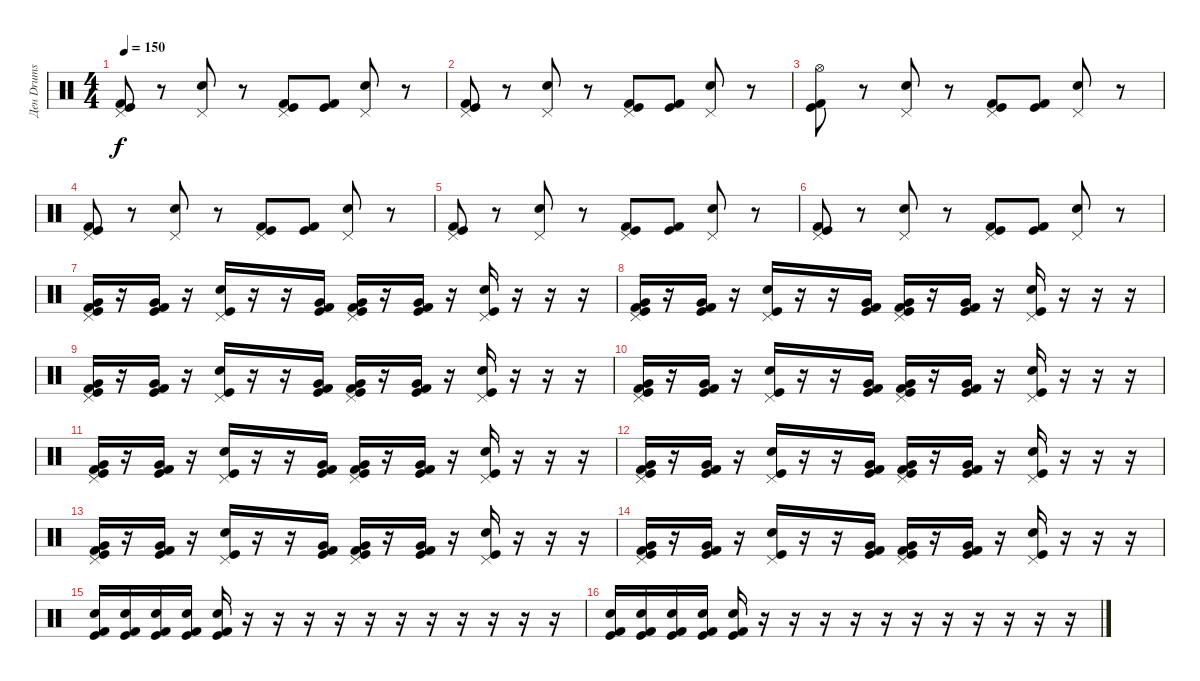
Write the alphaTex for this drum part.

\track ("Ден Drums" "Ден Drums") {instrument percussion}
\staff {score}
\articulation defaults
\ts (4 4)
\tempo 150
\clef neutral
\ks c
("Pedal Hi-Hat (hit)" "Kick (hit)" "Kick (hit) 2").8{dy f} r.8 ("Pedal Hi-Hat (hit)" "Electric Snare (hit)").8 r.8 ("Pedal Hi-Hat (hit)" "Kick (hit)" "Kick (hit) 2").8 ("Kick (hit)" "Kick (hit) 2").8 ("Pedal Hi-Hat (hit)" "Electric Snare (hit)").8 r.8 |
("Pedal Hi-Hat (hit)" "Kick (hit)" "Kick (hit) 2").8 r.8 ("Pedal Hi-Hat (hit)" "Electric Snare (hit)").8 r.8 ("Pedal Hi-Hat (hit)" "Kick (hit)" "Kick (hit) 2").8 ("Kick (hit)" "Kick (hit) 2").8 ("Pedal Hi-Hat (hit)" "Electric Snare (hit)").8 r.8 |
("Hi-Hat (open)" "Kick (hit)" "Kick (hit) 2").8 r.8 ("Pedal Hi-Hat (hit)" "Electric Snare (hit)").8 r.8 ("Pedal Hi-Hat (hit)" "Kick (hit)" "Kick (hit) 2").8 ("Kick (hit)" "Kick (hit) 2").8 ("Pedal Hi-Hat (hit)" "Electric Snare (hit)").8 r.8 |
("Pedal Hi-Hat (hit)" "Kick (hit)" "Kick (hit) 2").8 r.8 ("Pedal Hi-Hat (hit)" "Electric Snare (hit)").8 r.8 ("Pedal Hi-Hat (hit)" "Kick (hit)" "Kick (hit) 2").8 ("Kick (hit)" "Kick (hit) 2").8 ("Pedal Hi-Hat (hit)" "Electric Snare (hit)").8 r.8 |
("Pedal Hi-Hat (hit)" "Kick (hit)" "Kick (hit) 2").8 r.8 ("Pedal Hi-Hat (hit)" "Electric Snare (hit)").8 r.8 ("Pedal Hi-Hat (hit)" "Kick (hit)" "Kick (hit) 2").8 ("Kick (hit)" "Kick (hit) 2").8 ("Pedal Hi-Hat (hit)" "Electric Snare (hit)").8 r.8 |
("Pedal Hi-Hat (hit)" "Kick (hit)" "Kick (hit) 2").8 r.8 ("Pedal Hi-Hat (hit)" "Electric Snare (hit)").8 r.8 ("Pedal Hi-Hat (hit)" "Kick (hit)" "Kick (hit) 2").8 ("Kick (hit)" "Kick (hit) 2").8 ("Pedal Hi-Hat (hit)" "Electric Snare (hit)").8 r.8 |
("Pedal Hi-Hat (hit)" "Very Low Tom (hit)" "Kick (hit) 2" "Kick (hit)").16 r.16 ("Very Low Tom (hit)" "Kick (hit) 2" "Kick (hit)").16 r.16 ("Pedal Hi-Hat (hit)" "Electric Snare (hit)" "Kick (hit)").16 r.16 r.16 ("Very Low Tom (hit)" "Kick (hit) 2" "Kick (hit)").16 ("Pedal Hi-Hat (hit)" "Very Low Tom (hit)" "Kick (hit) 2" "Kick (hit)").16 r.16 ("Very Low Tom (hit)" "Kick (hit) 2" "Kick (hit)").16 r.16 ("Pedal Hi-Hat (hit)" "Electric Snare (hit)" "Kick (hit)").16 r.16 r.16 r.16 |
("Pedal Hi-Hat (hit)" "Very Low Tom (hit)" "Kick (hit) 2" "Kick (hit)").16 r.16 ("Very Low Tom (hit)" "Kick (hit) 2" "Kick (hit)").16 r.16 ("Pedal Hi-Hat (hit)" "Electric Snare (hit)" "Kick (hit)").16 r.16 r.16 ("Very Low Tom (hit)" "Kick (hit) 2" "Kick (hit)").16 ("Pedal Hi-Hat (hit)" "Very Low Tom (hit)" "Kick (hit) 2" "Kick (hit)").16 r.16 ("Very Low Tom (hit)" "Kick (hit) 2" "Kick (hit)").16 r.16 ("Pedal Hi-Hat (hit)" "Electric Snare (hit)" "Kick (hit)").16 r.16 r.16 r.16 |
("Pedal Hi-Hat (hit)" "Very Low Tom (hit)" "Kick (hit) 2" "Kick (hit)").16 r.16 ("Very Low Tom (hit)" "Kick (hit) 2" "Kick (hit)").16 r.16 ("Pedal Hi-Hat (hit)" "Electric Snare (hit)" "Kick (hit)").16 r.16 r.16 ("Very Low Tom (hit)" "Kick (hit) 2" "Kick (hit)").16 ("Pedal Hi-Hat (hit)" "Very Low Tom (hit)" "Kick (hit) 2" "Kick (hit)").16 r.16 ("Very Low Tom (hit)" "Kick (hit) 2" "Kick (hit)").16 r.16 ("Pedal Hi-Hat (hit)" "Electric Snare (hit)" "Kick (hit)").16 r.16 r.16 r.16 |
("Pedal Hi-Hat (hit)" "Very Low Tom (hit)" "Kick (hit) 2" "Kick (hit)").16 r.16 ("Very Low Tom (hit)" "Kick (hit) 2" "Kick (hit)").16 r.16 ("Pedal Hi-Hat (hit)" "Electric Snare (hit)" "Kick (hit)").16 r.16 r.16 ("Very Low Tom (hit)" "Kick (hit) 2" "Kick (hit)").16 ("Pedal Hi-Hat (hit)" "Very Low Tom (hit)" "Kick (hit) 2" "Kick (hit)").16 r.16 ("Very Low Tom (hit)" "Kick (hit) 2" "Kick (hit)").16 r.16 ("Pedal Hi-Hat (hit)" "Electric Snare (hit)" "Kick (hit)").16 r.16 r.16 r.16 |
("Pedal Hi-Hat (hit)" "Very Low Tom (hit)" "Kick (hit) 2" "Kick (hit)").16 r.16 ("Very Low Tom (hit)" "Kick (hit) 2" "Kick (hit)").16 r.16 ("Pedal Hi-Hat (hit)" "Electric Snare (hit)" "Kick (hit)").16 r.16 r.16 ("Very Low Tom (hit)" "Kick (hit) 2" "Kick (hit)").16 ("Pedal Hi-Hat (hit)" "Very Low Tom (hit)" "Kick (hit) 2" "Kick (hit)").16 r.16 ("Very Low Tom (hit)" "Kick (hit) 2" "Kick (hit)").16 r.16 ("Pedal Hi-Hat (hit)" "Electric Snare (hit)" "Kick (hit)").16 r.16 r.16 r.16 |
("Pedal Hi-Hat (hit)" "Very Low Tom (hit)" "Kick (hit) 2" "Kick (hit)").16 r.16 ("Very Low Tom (hit)" "Kick (hit) 2" "Kick (hit)").16 r.16 ("Pedal Hi-Hat (hit)" "Electric Snare (hit)" "Kick (hit)").16 r.16 r.16 ("Very Low Tom (hit)" "Kick (hit) 2" "Kick (hit)").16 ("Pedal Hi-Hat (hit)" "Very Low Tom (hit)" "Kick (hit) 2" "Kick (hit)").16 r.16 ("Very Low Tom (hit)" "Kick (hit) 2" "Kick (hit)").16 r.16 ("Pedal Hi-Hat (hit)" "Electric Snare (hit)" "Kick (hit)").16 r.16 r.16 r.16 |
("Pedal Hi-Hat (hit)" "Very Low Tom (hit)" "Kick (hit) 2" "Kick (hit)").16 r.16 ("Very Low Tom (hit)" "Kick (hit) 2" "Kick (hit)").16 r.16 ("Pedal Hi-Hat (hit)" "Electric Snare (hit)" "Kick (hit)").16 r.16 r.16 ("Very Low Tom (hit)" "Kick (hit) 2" "Kick (hit)").16 ("Pedal Hi-Hat (hit)" "Very Low Tom (hit)" "Kick (hit) 2" "Kick (hit)").16 r.16 ("Very Low Tom (hit)" "Kick (hit) 2" "Kick (hit)").16 r.16 ("Pedal Hi-Hat (hit)" "Electric Snare (hit)" "Kick (hit)").16 r.16 r.16 r.16 |
("Pedal Hi-Hat (hit)" "Very Low Tom (hit)" "Kick (hit) 2" "Kick (hit)").16 r.16 ("Very Low Tom (hit)" "Kick (hit) 2" "Kick (hit)").16 r.16 ("Pedal Hi-Hat (hit)" "Electric Snare (hit)" "Kick (hit)").16 r.16 r.16 ("Very Low Tom (hit)" "Kick (hit) 2" "Kick (hit)").16 ("Pedal Hi-Hat (hit)" "Very Low Tom (hit)" "Kick (hit) 2" "Kick (hit)").16 r.16 ("Very Low Tom (hit)" "Kick (hit) 2" "Kick (hit)").16 r.16 ("Pedal Hi-Hat (hit)" "Electric Snare (hit)" "Kick (hit)").16 r.16 r.16 r.16 |
("Electric Snare (hit)" "Kick (hit)" "Kick (hit) 2").16 ("Electric Snare (hit)" "Kick (hit)" "Kick (hit) 2").16 ("Electric Snare (hit)" "Kick (hit)" "Kick (hit) 2").16 ("Electric Snare (hit)" "Kick (hit)" "Kick (hit) 2").16 ("Electric Snare (hit)" "Kick (hit)" "Kick (hit) 2").16 r.16 r.16 r.16 r.16 r.16 r.16 r.16 r.16 r.16 r.16 r.16 |
("Electric Snare (hit)" "Kick (hit)" "Kick (hit) 2").16 ("Electric Snare (hit)" "Kick (hit)" "Kick (hit) 2").16 ("Electric Snare (hit)" "Kick (hit)" "Kick (hit) 2").16 ("Electric Snare (hit)" "Kick (hit)" "Kick (hit) 2").16 ("Electric Snare (hit)" "Kick (hit)" "Kick (hit) 2").16 r.16 r.16 r.16 r.16 r.16 r.16 r.16 r.16 r.16 r.16 r.16
